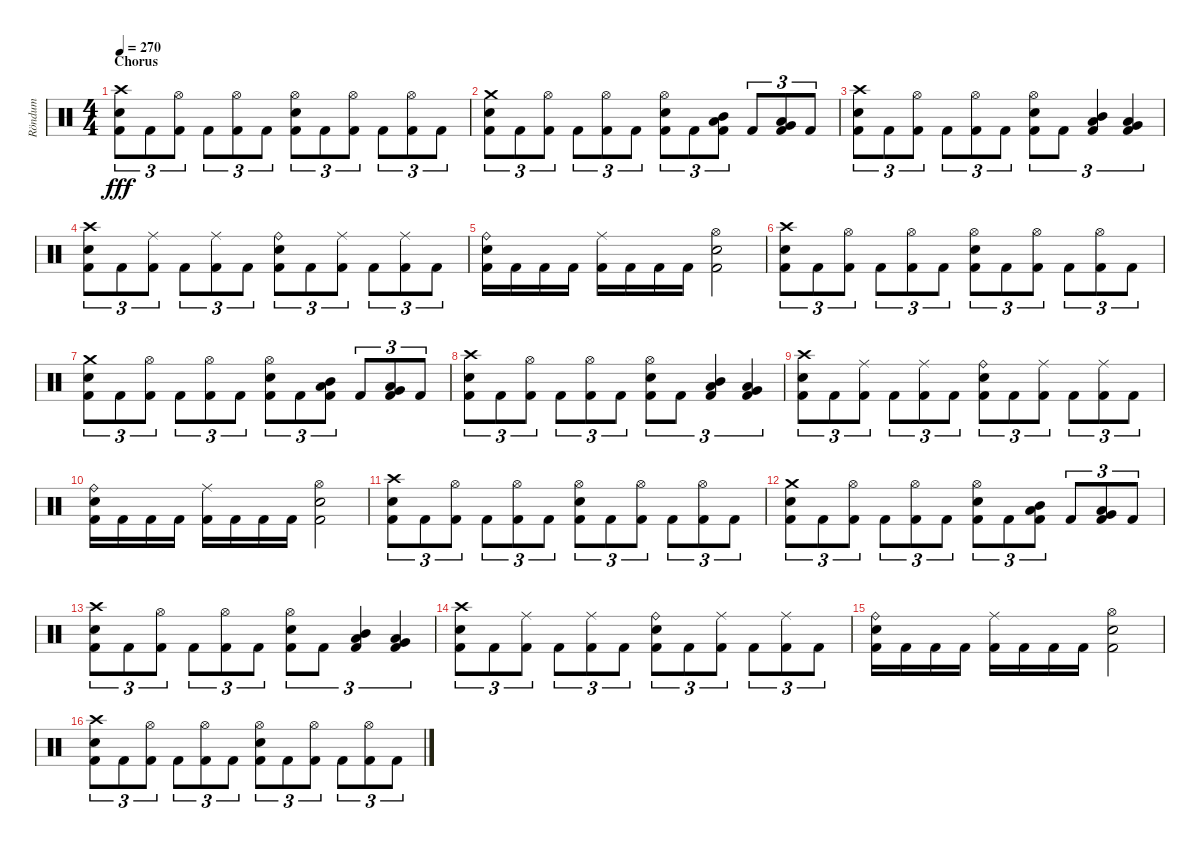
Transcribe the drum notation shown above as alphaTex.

\track ("Röndum" "Röndum") {instrument percussion}
\staff {score}
\articulation defaults
\ts (4 4)
\section ("" "Chorus")
\tempo 270
\clef neutral
\ks c
("Crash high (hit)" "Snare (hit) 2" "Kick (hit) 2").8{tu (3 2) dy fff} "Kick (hit) 2".8{tu (3 2)} ("Hi-Hat (open)" "Kick (hit) 2").8{tu (3 2)} "Kick (hit) 2".8{tu (3 2)} ("Hi-Hat (open)" "Kick (hit) 2").8{tu (3 2)} "Kick (hit) 2".8{tu (3 2)} ("Hi-Hat (open)" "Snare (hit) 2" "Kick (hit) 2").8{tu (3 2)} "Kick (hit) 2".8{tu (3 2)} ("Hi-Hat (open)" "Kick (hit) 2").8{tu (3 2)} "Kick (hit) 2".8{tu (3 2)} ("Hi-Hat (open)" "Kick (hit) 2").8{tu (3 2)} "Kick (hit) 2".8{tu (3 2)} |
("Crash medium (hit)" "Snare (hit) 2" "Kick (hit) 2").8{tu (3 2)} "Kick (hit) 2".8{tu (3 2)} ("Hi-Hat (open)" "Kick (hit) 2").8{tu (3 2)} "Kick (hit) 2".8{tu (3 2)} ("Hi-Hat (open)" "Kick (hit) 2").8{tu (3 2)} "Kick (hit) 2".8{tu (3 2)} ("Hi-Hat (open)" "Snare (hit) 2" "Kick (hit) 2").8{tu (3 2)} "Kick (hit) 2".8{tu (3 2)} ("Low Tom (hit)" "Mid Tom (hit)" "Kick (hit) 2").8{tu (3 2)} "Kick (hit) 2".8{tu (3 2)} ("Very Low Tom (hit)" "Low Tom (hit)" "Kick (hit) 2").8{tu (3 2)} "Kick (hit) 2".8{tu (3 2)} |
("Crash high (hit)" "Snare (hit) 2" "Kick (hit) 2").8{tu (3 2)} "Kick (hit) 2".8{tu (3 2)} ("Hi-Hat (open)" "Kick (hit) 2").8{tu (3 2)} "Kick (hit) 2".8{tu (3 2)} ("Hi-Hat (open)" "Kick (hit) 2").8{tu (3 2)} "Kick (hit) 2".8{tu (3 2)} ("Hi-Hat (open)" "Snare (hit) 2" "Kick (hit) 2").8{tu (3 2)} "Kick (hit) 2".8{tu (3 2)} ("Mid Tom (hit)" "Low Tom (hit)" "Kick (hit) 2").4{tu (3 2)} ("Low Tom (hit)" "Very Low Tom (hit)" "Kick (hit) 2").4{tu (3 2)} |
("Crash high (hit)" "Snare (hit) 2" "Kick (hit) 2").8{tu (3 2)} "Kick (hit) 2".8{tu (3 2)} ("Ride (middle)" "Kick (hit) 2").8{tu (3 2)} "Kick (hit) 2".8{tu (3 2)} ("Ride (middle)" "Kick (hit) 2").8{tu (3 2)} "Kick (hit) 2".8{tu (3 2)} ("Ride (bell)" "Snare (hit) 2" "Kick (hit) 2").8{tu (3 2)} "Kick (hit) 2".8{tu (3 2)} ("Ride (middle)" "Kick (hit) 2").8{tu (3 2)} "Kick (hit) 2".8{tu (3 2)} ("Ride (middle)" "Kick (hit) 2").8{tu (3 2)} "Kick (hit) 2".8{tu (3 2)} |
("Ride (bell)" "Snare (hit) 2" "Kick (hit) 2").16 "Kick (hit) 2".16 "Kick (hit) 2".16 "Kick (hit) 2".16 ("Ride (middle)" "Kick (hit) 2").16 "Kick (hit) 2".16 "Kick (hit) 2".16 "Kick (hit) 2".16 ("Hi-Hat (open)" "Snare (hit) 2" "Kick (hit) 2").2 |
("Crash high (hit)" "Snare (hit) 2" "Kick (hit) 2").8{tu (3 2)} "Kick (hit) 2".8{tu (3 2)} ("Hi-Hat (open)" "Kick (hit) 2").8{tu (3 2)} "Kick (hit) 2".8{tu (3 2)} ("Hi-Hat (open)" "Kick (hit) 2").8{tu (3 2)} "Kick (hit) 2".8{tu (3 2)} ("Hi-Hat (open)" "Snare (hit) 2" "Kick (hit) 2").8{tu (3 2)} "Kick (hit) 2".8{tu (3 2)} ("Hi-Hat (open)" "Kick (hit) 2").8{tu (3 2)} "Kick (hit) 2".8{tu (3 2)} ("Hi-Hat (open)" "Kick (hit) 2").8{tu (3 2)} "Kick (hit) 2".8{tu (3 2)} |
("Crash medium (hit)" "Snare (hit) 2" "Kick (hit) 2").8{tu (3 2)} "Kick (hit) 2".8{tu (3 2)} ("Hi-Hat (open)" "Kick (hit) 2").8{tu (3 2)} "Kick (hit) 2".8{tu (3 2)} ("Hi-Hat (open)" "Kick (hit) 2").8{tu (3 2)} "Kick (hit) 2".8{tu (3 2)} ("Hi-Hat (open)" "Snare (hit) 2" "Kick (hit) 2").8{tu (3 2)} "Kick (hit) 2".8{tu (3 2)} ("Low Tom (hit)" "Mid Tom (hit)" "Kick (hit) 2").8{tu (3 2)} "Kick (hit) 2".8{tu (3 2)} ("Very Low Tom (hit)" "Low Tom (hit)" "Kick (hit) 2").8{tu (3 2)} "Kick (hit) 2".8{tu (3 2)} |
("Crash high (hit)" "Snare (hit) 2" "Kick (hit) 2").8{tu (3 2)} "Kick (hit) 2".8{tu (3 2)} ("Hi-Hat (open)" "Kick (hit) 2").8{tu (3 2)} "Kick (hit) 2".8{tu (3 2)} ("Hi-Hat (open)" "Kick (hit) 2").8{tu (3 2)} "Kick (hit) 2".8{tu (3 2)} ("Hi-Hat (open)" "Snare (hit) 2" "Kick (hit) 2").8{tu (3 2)} "Kick (hit) 2".8{tu (3 2)} ("Mid Tom (hit)" "Low Tom (hit)" "Kick (hit) 2").4{tu (3 2)} ("Low Tom (hit)" "Very Low Tom (hit)" "Kick (hit) 2").4{tu (3 2)} |
("Crash high (hit)" "Snare (hit) 2" "Kick (hit) 2").8{tu (3 2)} "Kick (hit) 2".8{tu (3 2)} ("Ride (middle)" "Kick (hit) 2").8{tu (3 2)} "Kick (hit) 2".8{tu (3 2)} ("Ride (middle)" "Kick (hit) 2").8{tu (3 2)} "Kick (hit) 2".8{tu (3 2)} ("Ride (bell)" "Snare (hit) 2" "Kick (hit) 2").8{tu (3 2)} "Kick (hit) 2".8{tu (3 2)} ("Ride (middle)" "Kick (hit) 2").8{tu (3 2)} "Kick (hit) 2".8{tu (3 2)} ("Ride (middle)" "Kick (hit) 2").8{tu (3 2)} "Kick (hit) 2".8{tu (3 2)} |
("Ride (bell)" "Snare (hit) 2" "Kick (hit) 2").16 "Kick (hit) 2".16 "Kick (hit) 2".16 "Kick (hit) 2".16 ("Ride (middle)" "Kick (hit) 2").16 "Kick (hit) 2".16 "Kick (hit) 2".16 "Kick (hit) 2".16 ("Hi-Hat (open)" "Snare (hit) 2" "Kick (hit) 2").2 |
("Crash high (hit)" "Snare (hit) 2" "Kick (hit) 2").8{tu (3 2)} "Kick (hit) 2".8{tu (3 2)} ("Hi-Hat (open)" "Kick (hit) 2").8{tu (3 2)} "Kick (hit) 2".8{tu (3 2)} ("Hi-Hat (open)" "Kick (hit) 2").8{tu (3 2)} "Kick (hit) 2".8{tu (3 2)} ("Hi-Hat (open)" "Snare (hit) 2" "Kick (hit) 2").8{tu (3 2)} "Kick (hit) 2".8{tu (3 2)} ("Hi-Hat (open)" "Kick (hit) 2").8{tu (3 2)} "Kick (hit) 2".8{tu (3 2)} ("Hi-Hat (open)" "Kick (hit) 2").8{tu (3 2)} "Kick (hit) 2".8{tu (3 2)} |
("Crash medium (hit)" "Snare (hit) 2" "Kick (hit) 2").8{tu (3 2)} "Kick (hit) 2".8{tu (3 2)} ("Hi-Hat (open)" "Kick (hit) 2").8{tu (3 2)} "Kick (hit) 2".8{tu (3 2)} ("Hi-Hat (open)" "Kick (hit) 2").8{tu (3 2)} "Kick (hit) 2".8{tu (3 2)} ("Hi-Hat (open)" "Snare (hit) 2" "Kick (hit) 2").8{tu (3 2)} "Kick (hit) 2".8{tu (3 2)} ("Low Tom (hit)" "Mid Tom (hit)" "Kick (hit) 2").8{tu (3 2)} "Kick (hit) 2".8{tu (3 2)} ("Very Low Tom (hit)" "Low Tom (hit)" "Kick (hit) 2").8{tu (3 2)} "Kick (hit) 2".8{tu (3 2)} |
("Crash high (hit)" "Snare (hit) 2" "Kick (hit) 2").8{tu (3 2)} "Kick (hit) 2".8{tu (3 2)} ("Hi-Hat (open)" "Kick (hit) 2").8{tu (3 2)} "Kick (hit) 2".8{tu (3 2)} ("Hi-Hat (open)" "Kick (hit) 2").8{tu (3 2)} "Kick (hit) 2".8{tu (3 2)} ("Hi-Hat (open)" "Snare (hit) 2" "Kick (hit) 2").8{tu (3 2)} "Kick (hit) 2".8{tu (3 2)} ("Mid Tom (hit)" "Low Tom (hit)" "Kick (hit) 2").4{tu (3 2)} ("Low Tom (hit)" "Very Low Tom (hit)" "Kick (hit) 2").4{tu (3 2)} |
("Crash high (hit)" "Snare (hit) 2" "Kick (hit) 2").8{tu (3 2)} "Kick (hit) 2".8{tu (3 2)} ("Ride (middle)" "Kick (hit) 2").8{tu (3 2)} "Kick (hit) 2".8{tu (3 2)} ("Ride (middle)" "Kick (hit) 2").8{tu (3 2)} "Kick (hit) 2".8{tu (3 2)} ("Ride (bell)" "Snare (hit) 2" "Kick (hit) 2").8{tu (3 2)} "Kick (hit) 2".8{tu (3 2)} ("Ride (middle)" "Kick (hit) 2").8{tu (3 2)} "Kick (hit) 2".8{tu (3 2)} ("Ride (middle)" "Kick (hit) 2").8{tu (3 2)} "Kick (hit) 2".8{tu (3 2)} |
("Ride (bell)" "Snare (hit) 2" "Kick (hit) 2").16 "Kick (hit) 2".16 "Kick (hit) 2".16 "Kick (hit) 2".16 ("Ride (middle)" "Kick (hit) 2").16 "Kick (hit) 2".16 "Kick (hit) 2".16 "Kick (hit) 2".16 ("Hi-Hat (open)" "Snare (hit) 2" "Kick (hit) 2").2 |
("Crash high (hit)" "Snare (hit) 2" "Kick (hit) 2").8{tu (3 2)} "Kick (hit) 2".8{tu (3 2)} ("Hi-Hat (open)" "Kick (hit) 2").8{tu (3 2)} "Kick (hit) 2".8{tu (3 2)} ("Hi-Hat (open)" "Kick (hit) 2").8{tu (3 2)} "Kick (hit) 2".8{tu (3 2)} ("Hi-Hat (open)" "Snare (hit) 2" "Kick (hit) 2").8{tu (3 2)} "Kick (hit) 2".8{tu (3 2)} ("Hi-Hat (open)" "Kick (hit) 2").8{tu (3 2)} "Kick (hit) 2".8{tu (3 2)} ("Hi-Hat (open)" "Kick (hit) 2").8{tu (3 2)} "Kick (hit) 2".8{tu (3 2)}
